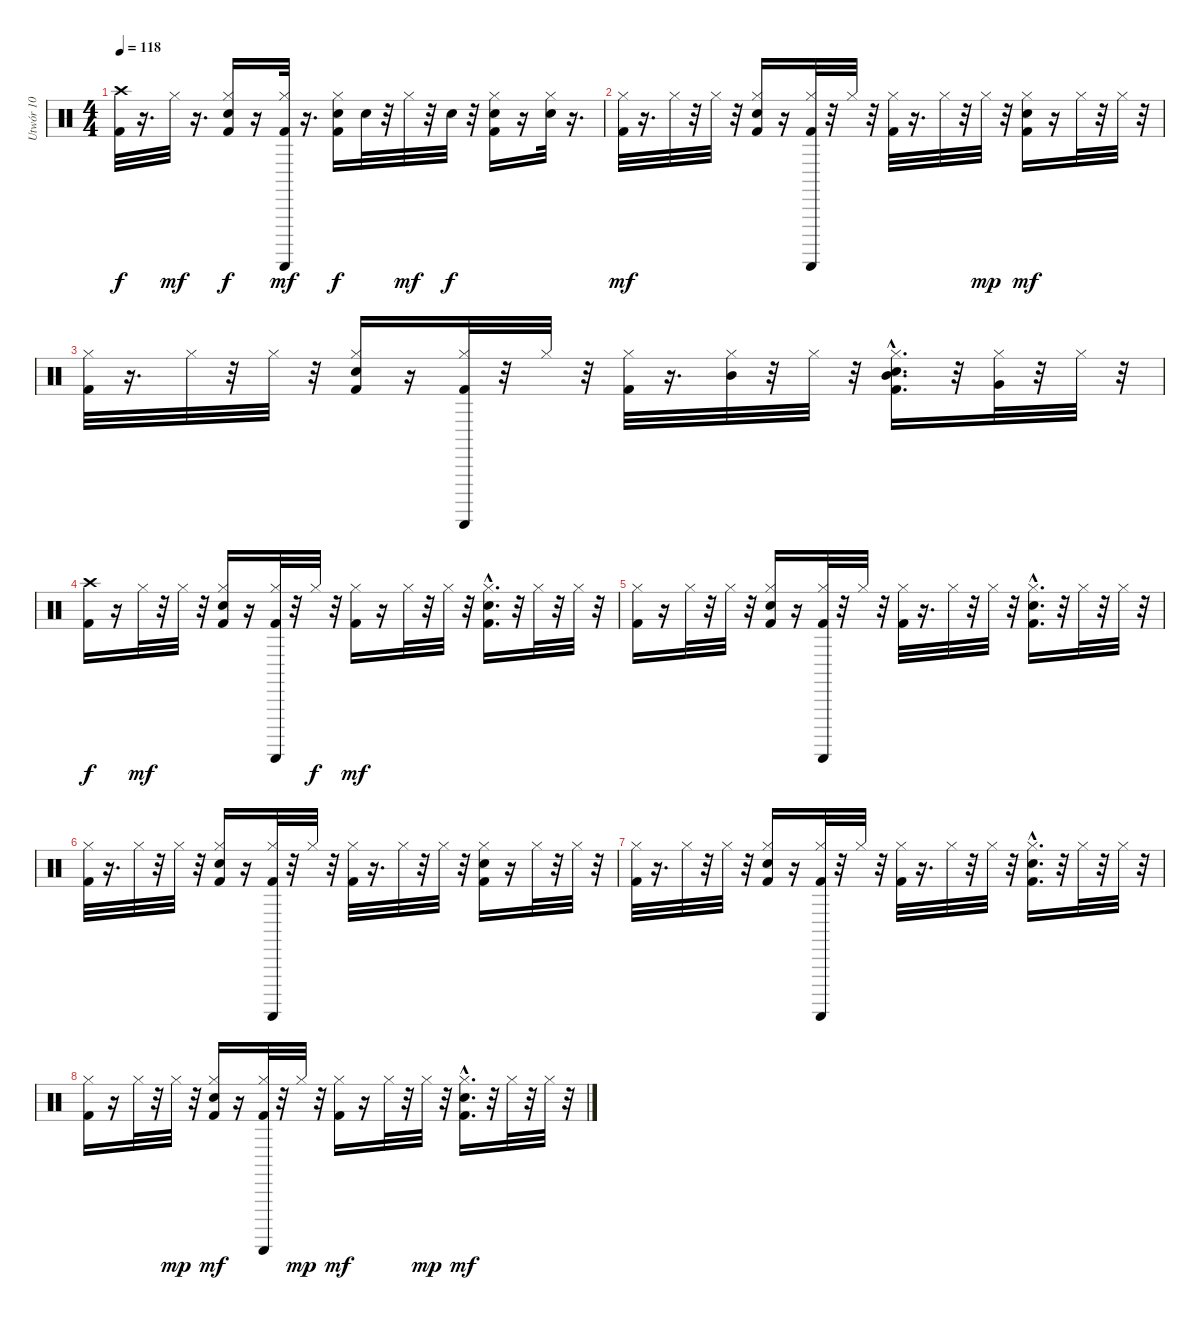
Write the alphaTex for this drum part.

\track ("Utwór 10" "Utwór 10") {instrument percussion}
\staff {score}
\articulation defaults
\ts (4 4)
\tempo 118
\clef neutral
\ks c
("Kick (hit) 2" "Crash high (hit)").32{dy f} r.16{d} "Hi-Hat (closed)".32{dy mf} r.16{d} ("Kick (hit) 2" "Snare (hit) 2" "Hi-Hat (closed)").16{dy f} r.16 ("Kick (hit) 2" "Hi-Hat (closed)" "Guiro (scrap-return)").32{dy mf} r.16{d} ("Kick (hit) 2" "Snare (hit) 2" "Hi-Hat (closed)").16{dy f} "Snare (hit) 2".32 r.32 "Hi-Hat (closed)".32{dy mf} r.32 "Snare (hit) 2".32{dy f} r.32 ("Kick (hit) 2" "Snare (hit) 2" "Hi-Hat (closed)").16 r.16 ("Snare (hit) 2" "Hi-Hat (closed)").32 r.16{d} |
("Kick (hit) 2" "Hi-Hat (closed)").32{dy mf} r.16{d} "Hi-Hat (closed)".32 r.32 "Hi-Hat (closed)".32 r.32 ("Kick (hit) 2" "Snare (hit) 2" "Hi-Hat (closed)").16 r.16 ("Kick (hit) 2" "Hi-Hat (closed)" "Guiro (scrap-return)").32 r.32 "Hi-Hat (closed)".32 r.32 ("Kick (hit) 2" "Hi-Hat (closed)").32 r.16{d} "Hi-Hat (closed)".32 r.32 "Hi-Hat (closed)".32{dy mp} r.32 ("Kick (hit) 2" "Snare (hit) 2" "Hi-Hat (closed)").16{dy mf} r.16 "Hi-Hat (closed)".32 r.32 "Hi-Hat (closed)".32 r.32 |
("Kick (hit) 2" "Hi-Hat (closed)").32 r.16{d} "Hi-Hat (closed)".32 r.32 "Hi-Hat (closed)".32 r.32 ("Kick (hit) 2" "Snare (hit) 2" "Hi-Hat (closed)").16 r.16 ("Kick (hit) 2" "Hi-Hat (closed)" "Guiro (scrap-return)").32 r.32 "Hi-Hat (closed)".32 r.32 ("Kick (hit) 2" "Hi-Hat (closed)").32 r.16{d} ("Hi-Hat (closed)" "Mid Tom (hit)").32 r.32 "Hi-Hat (closed)".32 r.32 ("Kick (hit) 2" "Snare (hit) 2"{hac} "Hi-Hat (closed)" "Mid Tom (hit)").16{d} r.32 ("Hi-Hat (closed)" "Very Low Tom (hit)").32 r.32 "Hi-Hat (closed)".32 r.32 |
("Kick (hit) 2" "Crash high (hit)").16{dy f} r.16 "Hi-Hat (closed)".32{dy mf} r.32 "Hi-Hat (closed)".32 r.32 ("Kick (hit) 2" "Snare (hit) 2" "Hi-Hat (closed)").16 r.16 ("Kick (hit) 2" "Hi-Hat (closed)" "Guiro (scrap-return)").32 r.32 "Hi-Hat (closed)".32{dy f} r.32 ("Kick (hit) 2" "Hi-Hat (closed)").16{dy mf} r.16 "Hi-Hat (closed)".32 r.32 "Hi-Hat (closed)".32 r.32 ("Kick (hit) 2" "Snare (hit) 2"{hac} "Hi-Hat (closed)").16{d} r.32 "Hi-Hat (closed)".32 r.32 "Hi-Hat (closed)".32 r.32 |
("Kick (hit) 2" "Hi-Hat (closed)").16 r.16 "Hi-Hat (closed)".32 r.32 "Hi-Hat (closed)".32 r.32 ("Kick (hit) 2" "Snare (hit) 2" "Hi-Hat (closed)").16 r.16 ("Kick (hit) 2" "Hi-Hat (closed)" "Guiro (scrap-return)").32 r.32 "Hi-Hat (closed)".32 r.32 ("Kick (hit) 2" "Hi-Hat (closed)").32 r.16{d} "Hi-Hat (closed)".32 r.32 "Hi-Hat (closed)".32 r.32 ("Kick (hit) 2" "Snare (hit) 2"{hac} "Hi-Hat (closed)").16{d} r.32 "Hi-Hat (closed)".32 r.32 "Hi-Hat (closed)".32 r.32 |
("Kick (hit) 2" "Hi-Hat (closed)").32 r.16{d} "Hi-Hat (closed)".32 r.32 "Hi-Hat (closed)".32 r.32 ("Kick (hit) 2" "Snare (hit) 2" "Hi-Hat (closed)").16 r.16 ("Kick (hit) 2" "Hi-Hat (closed)" "Guiro (scrap-return)").32 r.32 "Hi-Hat (closed)".32 r.32 ("Kick (hit) 2" "Hi-Hat (closed)").32 r.16{d} "Hi-Hat (closed)".32 r.32 "Hi-Hat (closed)".32 r.32 ("Kick (hit) 2" "Snare (hit) 2" "Hi-Hat (closed)").16 r.16 "Hi-Hat (closed)".32 r.32 "Hi-Hat (closed)".32 r.32 |
("Kick (hit) 2" "Hi-Hat (closed)").32 r.16{d} "Hi-Hat (closed)".32 r.32 "Hi-Hat (closed)".32 r.32 ("Kick (hit) 2" "Snare (hit) 2" "Hi-Hat (closed)").16 r.16 ("Kick (hit) 2" "Hi-Hat (closed)" "Guiro (scrap-return)").32 r.32 "Hi-Hat (closed)".32 r.32 ("Kick (hit) 2" "Hi-Hat (closed)").32 r.16{d} "Hi-Hat (closed)".32 r.32 "Hi-Hat (closed)".32 r.32 ("Kick (hit) 2" "Snare (hit) 2"{hac} "Hi-Hat (closed)").16{d} r.32 "Hi-Hat (closed)".32 r.32 "Hi-Hat (closed)".32 r.32 |
("Kick (hit) 2" "Hi-Hat (closed)").16 r.16 "Hi-Hat (closed)".32 r.32 "Hi-Hat (closed)".32{dy mp} r.32 ("Kick (hit) 2" "Snare (hit) 2" "Hi-Hat (closed)").16{dy mf} r.16 ("Kick (hit) 2" "Hi-Hat (closed)" "Guiro (scrap-return)").32 r.32 "Hi-Hat (closed)".32{dy mp} r.32 ("Kick (hit) 2" "Hi-Hat (closed)").16{dy mf} r.16 "Hi-Hat (closed)".32 r.32 "Hi-Hat (closed)".32{dy mp} r.32 ("Kick (hit) 2" "Snare (hit) 2"{hac} "Hi-Hat (closed)").16{d dy mf} r.32 "Hi-Hat (closed)".32 r.32 "Hi-Hat (closed)".32 r.32
